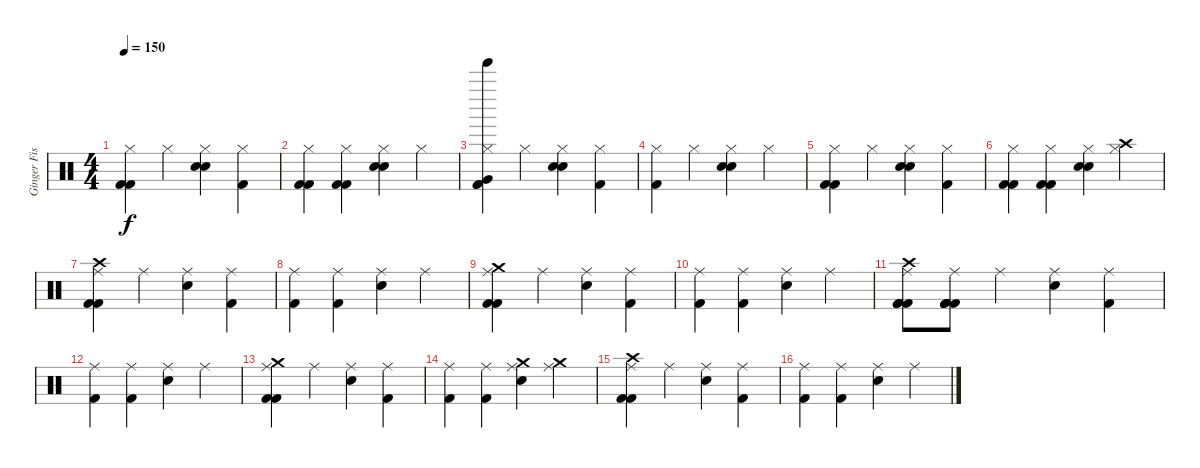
\track ("Ginger Fish" "Ginger Fis") {instrument percussion}
\staff {score}
\articulation defaults
\ts (4 4)
\tempo 150
\clef neutral
\ks c
("Hi-Hat (closed)" "Kick (hit) 2" "Kick (hit) 2").4{dy f} "Hi-Hat (closed)".4 ("Hi-Hat (closed)" "Snare (hit) 2" "Snare (hit) 2").4 ("Hi-Hat (closed)" "Kick (hit) 2").4 |
("Hi-Hat (closed)" "Kick (hit) 2" "Kick (hit) 2").4 ("Hi-Hat (closed)" "Kick (hit) 2" "Kick (hit) 2").4 ("Hi-Hat (closed)" "Snare (hit) 2" "Snare (hit) 2").4 "Hi-Hat (closed)".4 |
("Tinkle Bell (hit)" "Hi-Hat (closed)" "Very Low Tom (hit)" "Kick (hit) 2" "Kick (hit) 2").4 "Hi-Hat (closed)".4 ("Hi-Hat (closed)" "Snare (hit) 2" "Snare (hit) 2").4 ("Hi-Hat (closed)" "Kick (hit) 2").4 |
("Hi-Hat (closed)" "Kick (hit) 2").4 "Hi-Hat (closed)".4 ("Hi-Hat (closed)" "Snare (hit) 2" "Snare (hit) 2").4 "Hi-Hat (closed)".4 |
("Hi-Hat (closed)" "Kick (hit) 2" "Kick (hit) 2").4 "Hi-Hat (closed)".4 ("Hi-Hat (closed)" "Snare (hit) 2" "Snare (hit) 2").4 ("Hi-Hat (closed)" "Kick (hit) 2").4 |
("Hi-Hat (closed)" "Kick (hit) 2" "Kick (hit) 2").4 ("Hi-Hat (closed)" "Kick (hit) 2" "Kick (hit) 2").4 ("Hi-Hat (closed)" "Snare (hit) 2" "Snare (hit) 2").4 ("Crash high (hit)" "Hi-Hat (closed)").4 |
("Crash high (hit)" "Ride (middle)" "Kick (hit) 2" "Kick (hit) 2").4 "Ride (middle)".4 ("Ride (middle)" "Electric Snare (hit)").4 ("Ride (middle)" "Kick (hit) 2").4 |
("Ride (middle)" "Kick (hit) 2").4 ("Ride (middle)" "Kick (hit) 2").4 ("Ride (middle)" "Electric Snare (hit)").4 "Ride (middle)".4 |
("Crash medium (hit)" "Ride (middle)" "Kick (hit) 2" "Kick (hit) 2").4 "Ride (middle)".4 ("Ride (middle)" "Electric Snare (hit)").4 ("Ride (middle)" "Kick (hit) 2").4 |
("Ride (middle)" "Kick (hit) 2").4 ("Ride (middle)" "Kick (hit) 2").4 ("Ride (middle)" "Electric Snare (hit)").4 "Ride (middle)".4 |
("Crash high (hit)" "Ride (middle)" "Kick (hit) 2" "Kick (hit) 2" "Kick (hit) 2" "Kick (hit) 2").8 ("Ride (middle)" "Kick (hit) 2" "Kick (hit) 2" "Kick (hit) 2" "Kick (hit) 2").8 "Ride (middle)".4 ("Ride (middle)" "Electric Snare (hit)").4 ("Ride (middle)" "Kick (hit) 2").4 |
("Ride (middle)" "Kick (hit) 2").4 ("Ride (middle)" "Kick (hit) 2").4 ("Ride (middle)" "Electric Snare (hit)").4 "Ride (middle)".4 |
("Crash medium (hit)" "Ride (middle)" "Kick (hit) 2" "Kick (hit) 2").4 "Ride (middle)".4 ("Ride (middle)" "Electric Snare (hit)").4 ("Ride (middle)" "Kick (hit) 2").4 |
("Ride (middle)" "Kick (hit) 2").4 ("Ride (middle)" "Kick (hit) 2").4 ("Crash medium (hit)" "Ride (middle)" "Electric Snare (hit)").4 ("Crash medium (hit)" "Ride (middle)").4 |
("Crash high (hit)" "Ride (middle)" "Kick (hit) 2" "Kick (hit) 2").4 "Ride (middle)".4 ("Ride (middle)" "Electric Snare (hit)").4 ("Ride (middle)" "Kick (hit) 2").4 |
("Ride (middle)" "Kick (hit) 2").4 ("Ride (middle)" "Kick (hit) 2").4 ("Ride (middle)" "Electric Snare (hit)").4 "Ride (middle)".4
